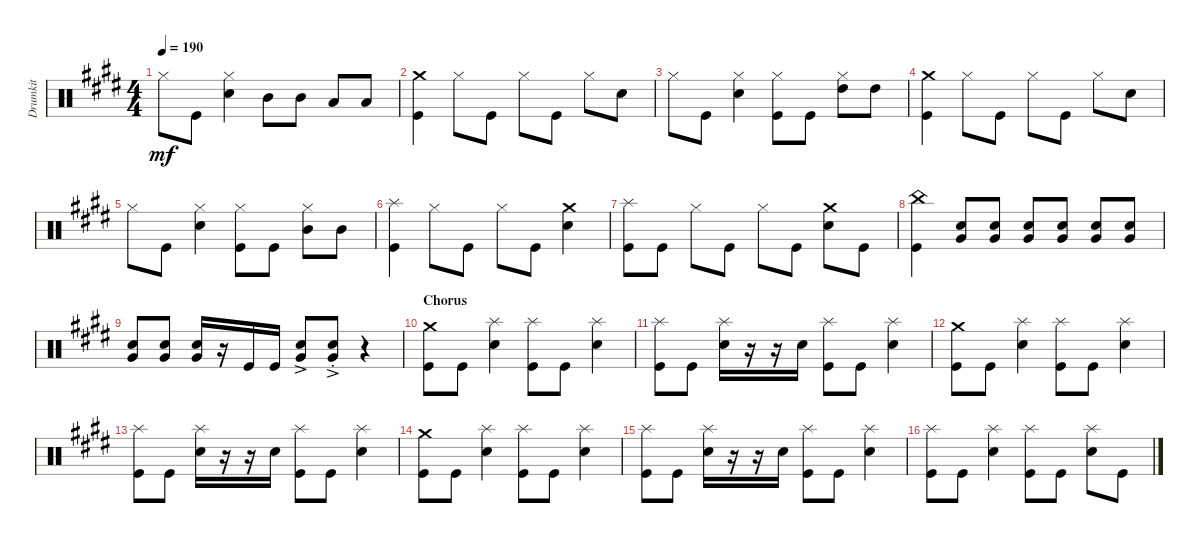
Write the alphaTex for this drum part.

\track ("Drumkit" "Drumkit") {instrument percussion}
\staff {score}
\articulation defaults
\ts (4 4)
\tempo 190
\clef neutral
\ks e "Hi-Hat (closed)".8{dy mf} "Kick (hit)".8
("Hi-Hat (closed)" "Snare (hit) 2").4 "Mid Tom (hit)".8 "Mid Tom (hit)".8 "Low Tom (hit)".8 "Low Tom (hit)".8 |
("Crash medium (hit)" "Kick (hit)").4 "Hi-Hat (closed)".8 "Kick (hit)".8 "Hi-Hat (closed)".8 "Kick (hit)".8 "Hi-Hat (closed)".8 "Snare (hit) 2".8 |
"Hi-Hat (closed)".8 "Kick (hit)".8 ("Hi-Hat (closed)" "Snare (hit) 2").4 ("Kick (hit)" "Hi-Hat (closed)").8 "Kick (hit)".8 ("Hi-Hat (closed)" "High Tom (hit)").8 "High Tom (hit)".8 |
("Crash medium (hit)" "Kick (hit)").4 "Hi-Hat (closed)".8 "Kick (hit)".8 "Hi-Hat (closed)".8 "Kick (hit)".8 "Hi-Hat (closed)".8 "Snare (hit) 2".8 |
"Hi-Hat (closed)".8 "Kick (hit)".8 ("Hi-Hat (closed)" "Snare (hit) 2").4 ("Kick (hit)" "Hi-Hat (closed)").8 "Kick (hit)".8 ("Hi-Hat (closed)" "Mid Tom (hit)").8 "Mid Tom (hit)".8 |
("Splash (hit)" "Kick (hit)").4 "Hi-Hat (closed)".8 "Kick (hit)".8 "Hi-Hat (closed)".8 "Kick (hit)".8 ("Crash medium (hit)" "Snare (hit) 2").4 |
("Splash (hit)" "Kick (hit)").8 "Kick (hit)".8 "Hi-Hat (closed)".8 "Kick (hit)".8 "Hi-Hat (closed)".8 "Kick (hit)".8 ("Crash medium (hit)" "Snare (hit) 2").8 "Kick (hit)".8 |
("China (hit)" "Kick (hit)").4 ("Very Low Tom (hit)" "Snare (hit) 2").8 ("Snare (hit) 2" "Very Low Tom (hit)").8 ("Very Low Tom (hit)" "Snare (hit) 2").8 ("Snare (hit) 2" "Very Low Tom (hit)").8 ("Very Low Tom (hit)" "Snare (hit) 2").8 ("Snare (hit) 2" "Very Low Tom (hit)").8 |
("Very Low Tom (hit)" "Snare (hit) 2").8 ("Snare (hit) 2" "Very Low Tom (hit)").8 ("Snare (hit) 2" "Very Low Tom (hit)").16 r.16 "Kick (hit)".16 "Kick (hit)".16 ("Snare (hit) 2"{ac} "Very Low Tom (hit)"{ac}).8 ("Very Low Tom (hit)"{ac st} "Snare (hit) 2"{ac st}).8 r.4 |
\section ("" "Chorus")
("Crash medium (hit)" "Kick (hit)").8 "Kick (hit)".8 ("Splash (hit)" "Snare (hit) 2").4 ("Kick (hit)" "Splash (hit)").8 "Kick (hit)".8 ("Snare (hit) 2" "Splash (hit)").4 |
("Kick (hit)" "Splash (hit)").8 "Kick (hit)".8 ("Splash (hit)" "Snare (hit) 2").16 r.16 r.16 "Snare (hit) 2".16 ("Splash (hit)" "Kick (hit)").8 "Kick (hit)".8 ("Splash (hit)" "Snare (hit) 2").4 |
("Crash medium (hit)" "Kick (hit)").8 "Kick (hit)".8 ("Splash (hit)" "Snare (hit) 2").4 ("Kick (hit)" "Splash (hit)").8 "Kick (hit)".8 ("Snare (hit) 2" "Splash (hit)").4 |
("Kick (hit)" "Splash (hit)").8 "Kick (hit)".8 ("Splash (hit)" "Snare (hit) 2").16 r.16 r.16 "Snare (hit) 2".16 ("Splash (hit)" "Kick (hit)").8 "Kick (hit)".8 ("Splash (hit)" "Snare (hit) 2").4 |
("Crash medium (hit)" "Kick (hit)").8 "Kick (hit)".8 ("Splash (hit)" "Snare (hit) 2").4 ("Kick (hit)" "Splash (hit)").8 "Kick (hit)".8 ("Snare (hit) 2" "Splash (hit)").4 |
("Kick (hit)" "Splash (hit)").8 "Kick (hit)".8 ("Splash (hit)" "Snare (hit) 2").16 r.16 r.16 "Snare (hit) 2".16 ("Splash (hit)" "Kick (hit)").8 "Kick (hit)".8 ("Splash (hit)" "Snare (hit) 2").4 |
("Splash (hit)" "Kick (hit)").8 "Kick (hit)".8 ("Splash (hit)" "Snare (hit) 2").4 ("Kick (hit)" "Splash (hit)").8 "Kick (hit)".8 ("Snare (hit) 2" "Splash (hit)").8 "Kick (hit)".8
